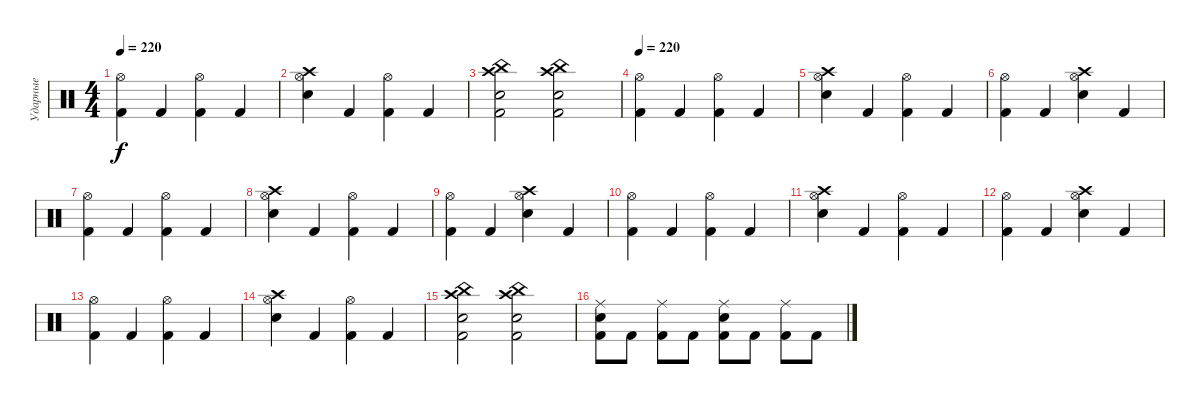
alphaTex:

\track ("Ударные" "Ударные") {instrument percussion}
\staff {score}
\articulation defaults
\ts (4 4)
\tempo 220
\clef neutral
\ks c
("Kick (hit) 2" "Hi-Hat (open)").4{dy f} "Kick (hit) 2".4 ("Kick (hit) 2" "Hi-Hat (open)").4 "Kick (hit) 2".4 |
("Electric Snare (hit)" "Hi-Hat (open)" "Crash high (hit)").4 "Kick (hit) 2".4 ("Kick (hit) 2" "Hi-Hat (open)").4 "Kick (hit) 2".4 |
("Kick (hit) 2" "Electric Snare (hit)" "Crash high (hit)" "China (hit)").2 ("China (hit)" "Crash high (hit)" "Kick (hit) 2" "Electric Snare (hit)").2 |
\tempo 220
("Kick (hit) 2" "Hi-Hat (open)").4 "Kick (hit) 2".4 ("Kick (hit) 2" "Hi-Hat (open)").4 "Kick (hit) 2".4 |
("Electric Snare (hit)" "Hi-Hat (open)" "Crash high (hit)").4 "Kick (hit) 2".4 ("Kick (hit) 2" "Hi-Hat (open)").4 "Kick (hit) 2".4 |
("Kick (hit) 2" "Hi-Hat (open)").4 "Kick (hit) 2".4 ("Electric Snare (hit)" "Hi-Hat (open)" "Crash high (hit)").4 "Kick (hit) 2".4 |
("Kick (hit) 2" "Hi-Hat (open)").4 "Kick (hit) 2".4 ("Kick (hit) 2" "Hi-Hat (open)").4 "Kick (hit) 2".4 |
("Electric Snare (hit)" "Hi-Hat (open)" "Crash high (hit)").4 "Kick (hit) 2".4 ("Kick (hit) 2" "Hi-Hat (open)").4 "Kick (hit) 2".4 |
("Kick (hit) 2" "Hi-Hat (open)").4 "Kick (hit) 2".4 ("Electric Snare (hit)" "Hi-Hat (open)" "Crash high (hit)").4 "Kick (hit) 2".4 |
("Kick (hit) 2" "Hi-Hat (open)").4 "Kick (hit) 2".4 ("Kick (hit) 2" "Hi-Hat (open)").4 "Kick (hit) 2".4 |
("Electric Snare (hit)" "Hi-Hat (open)" "Crash high (hit)").4 "Kick (hit) 2".4 ("Kick (hit) 2" "Hi-Hat (open)").4 "Kick (hit) 2".4 |
("Kick (hit) 2" "Hi-Hat (open)").4 "Kick (hit) 2".4 ("Electric Snare (hit)" "Hi-Hat (open)" "Crash high (hit)").4 "Kick (hit) 2".4 |
("Kick (hit) 2" "Hi-Hat (open)").4 "Kick (hit) 2".4 ("Kick (hit) 2" "Hi-Hat (open)").4 "Kick (hit) 2".4 |
("Electric Snare (hit)" "Hi-Hat (open)" "Crash high (hit)").4 "Kick (hit) 2".4 ("Kick (hit) 2" "Hi-Hat (open)").4 "Kick (hit) 2".4 |
("Kick (hit) 2" "Electric Snare (hit)" "Crash high (hit)" "China (hit)").2 ("China (hit)" "Crash high (hit)" "Kick (hit) 2" "Electric Snare (hit)").2 |
("Electric Snare (hit)" "Ride (middle)" "Kick (hit) 2").8 "Kick (hit) 2".8 ("Ride (middle)" "Kick (hit) 2").8 "Kick (hit) 2".8 ("Electric Snare (hit)" "Ride (middle)" "Kick (hit) 2").8 "Kick (hit) 2".8 ("Ride (middle)" "Kick (hit) 2").8 "Kick (hit) 2".8
